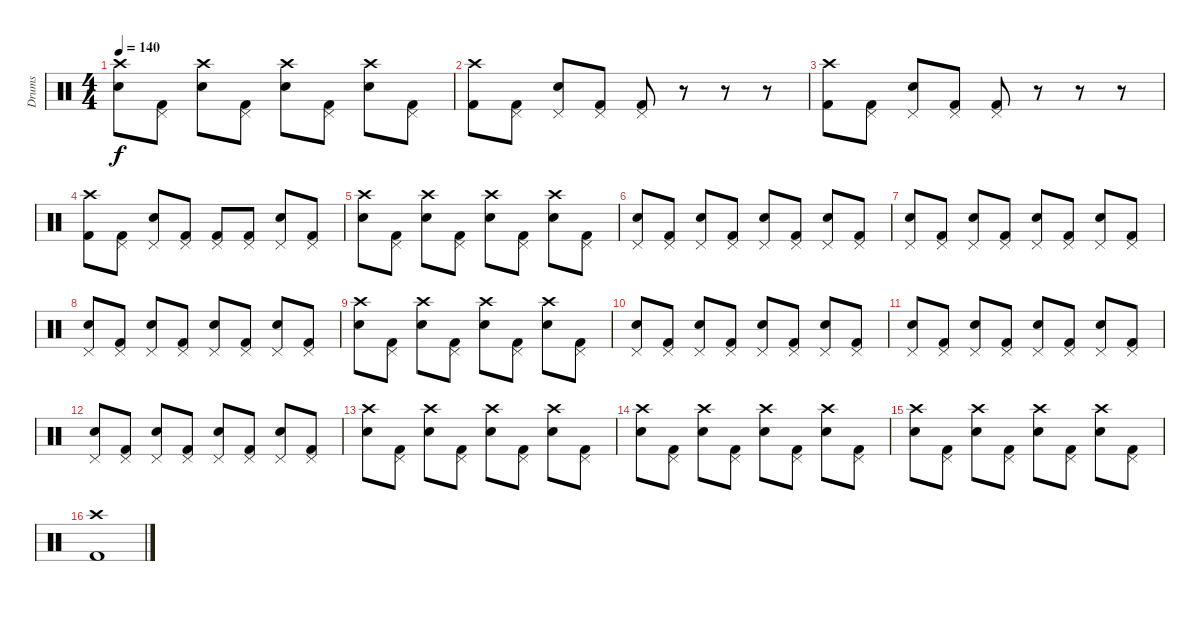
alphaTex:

\track ("Drums" "Drums") {instrument percussion}
\staff {score}
\articulation defaults
\ts (4 4)
\tempo 140
\clef neutral
\ks c
("Snare (hit) 2" "Crash high (hit)").8{dy f} ("Kick (hit) 2" "Pedal Hi-Hat (hit)").8 ("Snare (hit) 2" "Crash high (hit)").8 ("Kick (hit) 2" "Pedal Hi-Hat (hit)").8 ("Snare (hit) 2" "Crash high (hit)").8 ("Kick (hit) 2" "Pedal Hi-Hat (hit)").8 ("Snare (hit) 2" "Crash high (hit)").8 ("Kick (hit) 2" "Pedal Hi-Hat (hit)").8 |
("Kick (hit) 2" "Crash high (hit)").8 ("Kick (hit) 2" "Pedal Hi-Hat (hit)").8 ("Snare (hit) 2" "Pedal Hi-Hat (hit)").8 ("Kick (hit) 2" "Pedal Hi-Hat (hit)").8 ("Kick (hit) 2" "Pedal Hi-Hat (hit)").8 r.8 r.8 r.8 |
("Kick (hit) 2" "Crash high (hit)").8 ("Kick (hit) 2" "Pedal Hi-Hat (hit)").8 ("Snare (hit) 2" "Pedal Hi-Hat (hit)").8 ("Kick (hit) 2" "Pedal Hi-Hat (hit)").8 ("Kick (hit) 2" "Pedal Hi-Hat (hit)").8 r.8 r.8 r.8 |
("Kick (hit) 2" "Crash high (hit)").8 ("Kick (hit) 2" "Pedal Hi-Hat (hit)").8 ("Snare (hit) 2" "Pedal Hi-Hat (hit)").8 ("Kick (hit) 2" "Pedal Hi-Hat (hit)").8 ("Kick (hit) 2" "Pedal Hi-Hat (hit)").8 ("Kick (hit) 2" "Pedal Hi-Hat (hit)").8 ("Snare (hit) 2" "Pedal Hi-Hat (hit)").8 ("Kick (hit) 2" "Pedal Hi-Hat (hit)").8 |
("Snare (hit) 2" "Crash high (hit)").8 ("Kick (hit) 2" "Pedal Hi-Hat (hit)").8 ("Snare (hit) 2" "Crash high (hit)").8 ("Kick (hit) 2" "Pedal Hi-Hat (hit)").8 ("Snare (hit) 2" "Crash high (hit)").8 ("Kick (hit) 2" "Pedal Hi-Hat (hit)").8 ("Snare (hit) 2" "Crash high (hit)").8 ("Kick (hit) 2" "Pedal Hi-Hat (hit)").8 |
("Snare (hit) 2" "Pedal Hi-Hat (hit)").8 ("Kick (hit) 2" "Pedal Hi-Hat (hit)").8 ("Snare (hit) 2" "Pedal Hi-Hat (hit)").8 ("Kick (hit) 2" "Pedal Hi-Hat (hit)").8 ("Snare (hit) 2" "Pedal Hi-Hat (hit)").8 ("Kick (hit) 2" "Pedal Hi-Hat (hit)").8 ("Snare (hit) 2" "Pedal Hi-Hat (hit)").8 ("Kick (hit) 2" "Pedal Hi-Hat (hit)").8 |
("Snare (hit) 2" "Pedal Hi-Hat (hit)").8 ("Kick (hit) 2" "Pedal Hi-Hat (hit)").8 ("Snare (hit) 2" "Pedal Hi-Hat (hit)").8 ("Kick (hit) 2" "Pedal Hi-Hat (hit)").8 ("Snare (hit) 2" "Pedal Hi-Hat (hit)").8 ("Kick (hit) 2" "Pedal Hi-Hat (hit)").8 ("Snare (hit) 2" "Pedal Hi-Hat (hit)").8 ("Kick (hit) 2" "Pedal Hi-Hat (hit)").8 |
("Snare (hit) 2" "Pedal Hi-Hat (hit)").8 ("Kick (hit) 2" "Pedal Hi-Hat (hit)").8 ("Snare (hit) 2" "Pedal Hi-Hat (hit)").8 ("Kick (hit) 2" "Pedal Hi-Hat (hit)").8 ("Snare (hit) 2" "Pedal Hi-Hat (hit)").8 ("Kick (hit) 2" "Pedal Hi-Hat (hit)").8 ("Snare (hit) 2" "Pedal Hi-Hat (hit)").8 ("Kick (hit) 2" "Pedal Hi-Hat (hit)").8 |
("Snare (hit) 2" "Crash high (hit)").8 ("Kick (hit) 2" "Pedal Hi-Hat (hit)").8 ("Snare (hit) 2" "Crash high (hit)").8 ("Kick (hit) 2" "Pedal Hi-Hat (hit)").8 ("Snare (hit) 2" "Crash high (hit)").8 ("Kick (hit) 2" "Pedal Hi-Hat (hit)").8 ("Snare (hit) 2" "Crash high (hit)").8 ("Kick (hit) 2" "Pedal Hi-Hat (hit)").8 |
("Snare (hit) 2" "Pedal Hi-Hat (hit)").8 ("Kick (hit) 2" "Pedal Hi-Hat (hit)").8 ("Snare (hit) 2" "Pedal Hi-Hat (hit)").8 ("Kick (hit) 2" "Pedal Hi-Hat (hit)").8 ("Snare (hit) 2" "Pedal Hi-Hat (hit)").8 ("Kick (hit) 2" "Pedal Hi-Hat (hit)").8 ("Snare (hit) 2" "Pedal Hi-Hat (hit)").8 ("Kick (hit) 2" "Pedal Hi-Hat (hit)").8 |
("Snare (hit) 2" "Pedal Hi-Hat (hit)").8 ("Kick (hit) 2" "Pedal Hi-Hat (hit)").8 ("Snare (hit) 2" "Pedal Hi-Hat (hit)").8 ("Kick (hit) 2" "Pedal Hi-Hat (hit)").8 ("Snare (hit) 2" "Pedal Hi-Hat (hit)").8 ("Kick (hit) 2" "Pedal Hi-Hat (hit)").8 ("Snare (hit) 2" "Pedal Hi-Hat (hit)").8 ("Kick (hit) 2" "Pedal Hi-Hat (hit)").8 |
("Snare (hit) 2" "Pedal Hi-Hat (hit)").8 ("Kick (hit) 2" "Pedal Hi-Hat (hit)").8 ("Snare (hit) 2" "Pedal Hi-Hat (hit)").8 ("Kick (hit) 2" "Pedal Hi-Hat (hit)").8 ("Snare (hit) 2" "Pedal Hi-Hat (hit)").8 ("Kick (hit) 2" "Pedal Hi-Hat (hit)").8 ("Snare (hit) 2" "Pedal Hi-Hat (hit)").8 ("Kick (hit) 2" "Pedal Hi-Hat (hit)").8 |
("Snare (hit) 2" "Crash high (hit)").8 ("Kick (hit) 2" "Pedal Hi-Hat (hit)").8 ("Snare (hit) 2" "Crash high (hit)").8 ("Kick (hit) 2" "Pedal Hi-Hat (hit)").8 ("Snare (hit) 2" "Crash high (hit)").8 ("Kick (hit) 2" "Pedal Hi-Hat (hit)").8 ("Snare (hit) 2" "Crash high (hit)").8 ("Kick (hit) 2" "Pedal Hi-Hat (hit)").8 |
("Snare (hit) 2" "Crash high (hit)").8 ("Kick (hit) 2" "Pedal Hi-Hat (hit)").8 ("Snare (hit) 2" "Crash high (hit)").8 ("Kick (hit) 2" "Pedal Hi-Hat (hit)").8 ("Snare (hit) 2" "Crash high (hit)").8 ("Kick (hit) 2" "Pedal Hi-Hat (hit)").8 ("Snare (hit) 2" "Crash high (hit)").8 ("Kick (hit) 2" "Pedal Hi-Hat (hit)").8 |
("Snare (hit) 2" "Crash high (hit)").8 ("Kick (hit) 2" "Pedal Hi-Hat (hit)").8 ("Snare (hit) 2" "Crash high (hit)").8 ("Kick (hit) 2" "Pedal Hi-Hat (hit)").8 ("Snare (hit) 2" "Crash high (hit)").8 ("Kick (hit) 2" "Pedal Hi-Hat (hit)").8 ("Snare (hit) 2" "Crash high (hit)").8 ("Kick (hit) 2" "Pedal Hi-Hat (hit)").8 |
("Kick (hit) 2" "Crash high (hit)").1
